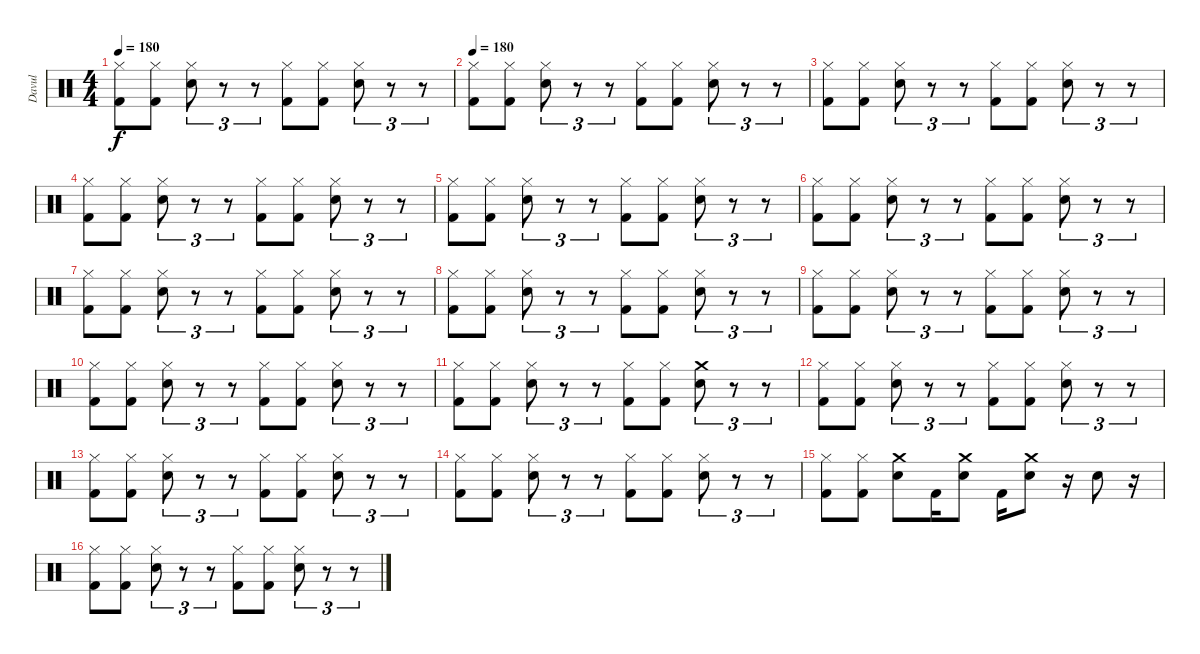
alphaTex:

\track ("Davul" "Davul") {instrument percussion}
\staff {score}
\articulation defaults
\ts (4 4)
\tempo 180
\clef neutral
\ks c
("Hi-Hat (closed)" "Kick (hit) 2").8{dy f} ("Hi-Hat (closed)" "Kick (hit) 2").8 ("Hi-Hat (closed)" "Snare (hit) 2").8{tu (3 2)} r.8{tu (3 2)} r.8{tu (3 2)} ("Hi-Hat (closed)" "Kick (hit) 2").8 ("Hi-Hat (closed)" "Kick (hit) 2").8 ("Hi-Hat (closed)" "Snare (hit) 2").8{tu (3 2)} r.8{tu (3 2)} r.8{tu (3 2)} |
\tempo 180
("Hi-Hat (closed)" "Kick (hit) 2").8 ("Hi-Hat (closed)" "Kick (hit) 2").8 ("Hi-Hat (closed)" "Snare (hit) 2").8{tu (3 2)} r.8{tu (3 2)} r.8{tu (3 2)} ("Hi-Hat (closed)" "Kick (hit) 2").8 ("Hi-Hat (closed)" "Kick (hit) 2").8 ("Hi-Hat (closed)" "Snare (hit) 2").8{tu (3 2)} r.8{tu (3 2)} r.8{tu (3 2)} |
("Hi-Hat (closed)" "Kick (hit) 2").8 ("Hi-Hat (closed)" "Kick (hit) 2").8 ("Hi-Hat (closed)" "Snare (hit) 2").8{tu (3 2)} r.8{tu (3 2)} r.8{tu (3 2)} ("Hi-Hat (closed)" "Kick (hit) 2").8 ("Hi-Hat (closed)" "Kick (hit) 2").8 ("Hi-Hat (closed)" "Snare (hit) 2").8{tu (3 2)} r.8{tu (3 2)} r.8{tu (3 2)} |
("Hi-Hat (closed)" "Kick (hit) 2").8 ("Hi-Hat (closed)" "Kick (hit) 2").8 ("Hi-Hat (closed)" "Snare (hit) 2").8{tu (3 2)} r.8{tu (3 2)} r.8{tu (3 2)} ("Hi-Hat (closed)" "Kick (hit) 2").8 ("Hi-Hat (closed)" "Kick (hit) 2").8 ("Hi-Hat (closed)" "Snare (hit) 2").8{tu (3 2)} r.8{tu (3 2)} r.8{tu (3 2)} |
("Hi-Hat (closed)" "Kick (hit) 2").8 ("Hi-Hat (closed)" "Kick (hit) 2").8 ("Hi-Hat (closed)" "Snare (hit) 2").8{tu (3 2)} r.8{tu (3 2)} r.8{tu (3 2)} ("Hi-Hat (closed)" "Kick (hit) 2").8 ("Hi-Hat (closed)" "Kick (hit) 2").8 ("Hi-Hat (closed)" "Snare (hit) 2").8{tu (3 2)} r.8{tu (3 2)} r.8{tu (3 2)} |
("Hi-Hat (closed)" "Kick (hit) 2").8 ("Hi-Hat (closed)" "Kick (hit) 2").8 ("Hi-Hat (closed)" "Snare (hit) 2").8{tu (3 2)} r.8{tu (3 2)} r.8{tu (3 2)} ("Hi-Hat (closed)" "Kick (hit) 2").8 ("Hi-Hat (closed)" "Kick (hit) 2").8 ("Hi-Hat (closed)" "Snare (hit) 2").8{tu (3 2)} r.8{tu (3 2)} r.8{tu (3 2)} |
("Hi-Hat (closed)" "Kick (hit) 2").8 ("Hi-Hat (closed)" "Kick (hit) 2").8 ("Hi-Hat (closed)" "Snare (hit) 2").8{tu (3 2)} r.8{tu (3 2)} r.8{tu (3 2)} ("Hi-Hat (closed)" "Kick (hit) 2").8 ("Hi-Hat (closed)" "Kick (hit) 2").8 ("Hi-Hat (closed)" "Snare (hit) 2").8{tu (3 2)} r.8{tu (3 2)} r.8{tu (3 2)} |
("Hi-Hat (closed)" "Kick (hit) 2").8 ("Hi-Hat (closed)" "Kick (hit) 2").8 ("Hi-Hat (closed)" "Snare (hit) 2").8{tu (3 2)} r.8{tu (3 2)} r.8{tu (3 2)} ("Hi-Hat (closed)" "Kick (hit) 2").8 ("Hi-Hat (closed)" "Kick (hit) 2").8 ("Hi-Hat (closed)" "Snare (hit) 2").8{tu (3 2)} r.8{tu (3 2)} r.8{tu (3 2)} |
("Hi-Hat (closed)" "Kick (hit) 2").8 ("Hi-Hat (closed)" "Kick (hit) 2").8 ("Hi-Hat (closed)" "Snare (hit) 2").8{tu (3 2)} r.8{tu (3 2)} r.8{tu (3 2)} ("Hi-Hat (closed)" "Kick (hit) 2").8 ("Hi-Hat (closed)" "Kick (hit) 2").8 ("Hi-Hat (closed)" "Snare (hit) 2").8{tu (3 2)} r.8{tu (3 2)} r.8{tu (3 2)} |
("Hi-Hat (closed)" "Kick (hit) 2").8 ("Hi-Hat (closed)" "Kick (hit) 2").8 ("Hi-Hat (closed)" "Snare (hit) 2").8{tu (3 2)} r.8{tu (3 2)} r.8{tu (3 2)} ("Hi-Hat (closed)" "Kick (hit) 2").8 ("Hi-Hat (closed)" "Kick (hit) 2").8 ("Hi-Hat (closed)" "Snare (hit) 2").8{tu (3 2)} r.8{tu (3 2)} r.8{tu (3 2)} |
("Hi-Hat (closed)" "Kick (hit) 2").8 ("Hi-Hat (closed)" "Kick (hit) 2").8 ("Hi-Hat (closed)" "Snare (hit) 2").8{tu (3 2)} r.8{tu (3 2)} r.8{tu (3 2)} ("Hi-Hat (closed)" "Kick (hit) 2").8 ("Hi-Hat (closed)" "Kick (hit) 2").8 ("Crash medium (hit)" "Snare (hit) 2").8{tu (3 2)} r.8{tu (3 2)} r.8{tu (3 2)} |
("Hi-Hat (closed)" "Kick (hit) 2").8 ("Hi-Hat (closed)" "Kick (hit) 2").8 ("Hi-Hat (closed)" "Snare (hit) 2").8{tu (3 2)} r.8{tu (3 2)} r.8{tu (3 2)} ("Hi-Hat (closed)" "Kick (hit) 2").8 ("Hi-Hat (closed)" "Kick (hit) 2").8 ("Hi-Hat (closed)" "Snare (hit) 2").8{tu (3 2)} r.8{tu (3 2)} r.8{tu (3 2)} |
("Hi-Hat (closed)" "Kick (hit) 2").8 ("Hi-Hat (closed)" "Kick (hit) 2").8 ("Hi-Hat (closed)" "Snare (hit) 2").8{tu (3 2)} r.8{tu (3 2)} r.8{tu (3 2)} ("Hi-Hat (closed)" "Kick (hit) 2").8 ("Hi-Hat (closed)" "Kick (hit) 2").8 ("Hi-Hat (closed)" "Snare (hit) 2").8{tu (3 2)} r.8{tu (3 2)} r.8{tu (3 2)} |
("Hi-Hat (closed)" "Kick (hit) 2").8 ("Hi-Hat (closed)" "Kick (hit) 2").8 ("Hi-Hat (closed)" "Snare (hit) 2").8{tu (3 2)} r.8{tu (3 2)} r.8{tu (3 2)} ("Hi-Hat (closed)" "Kick (hit) 2").8 ("Hi-Hat (closed)" "Kick (hit) 2").8 ("Hi-Hat (closed)" "Snare (hit) 2").8{tu (3 2)} r.8{tu (3 2)} r.8{tu (3 2)} |
("Hi-Hat (closed)" "Kick (hit) 2").8 ("Hi-Hat (closed)" "Kick (hit) 2").8 ("Crash medium (hit)" "Snare (hit) 2").8 "Kick (hit) 2".16 ("Crash medium (hit)" "Snare (hit) 2").8 "Kick (hit) 2".16 ("Crash medium (hit)" "Snare (hit) 2").8 r.16 "Snare (hit) 2".8 r.16 |
("Hi-Hat (closed)" "Kick (hit) 2").8 ("Hi-Hat (closed)" "Kick (hit) 2").8 ("Hi-Hat (closed)" "Snare (hit) 2").8{tu (3 2)} r.8{tu (3 2)} r.8{tu (3 2)} ("Hi-Hat (closed)" "Kick (hit) 2").8 ("Hi-Hat (closed)" "Kick (hit) 2").8 ("Hi-Hat (closed)" "Snare (hit) 2").8{tu (3 2)} r.8{tu (3 2)} r.8{tu (3 2)}
